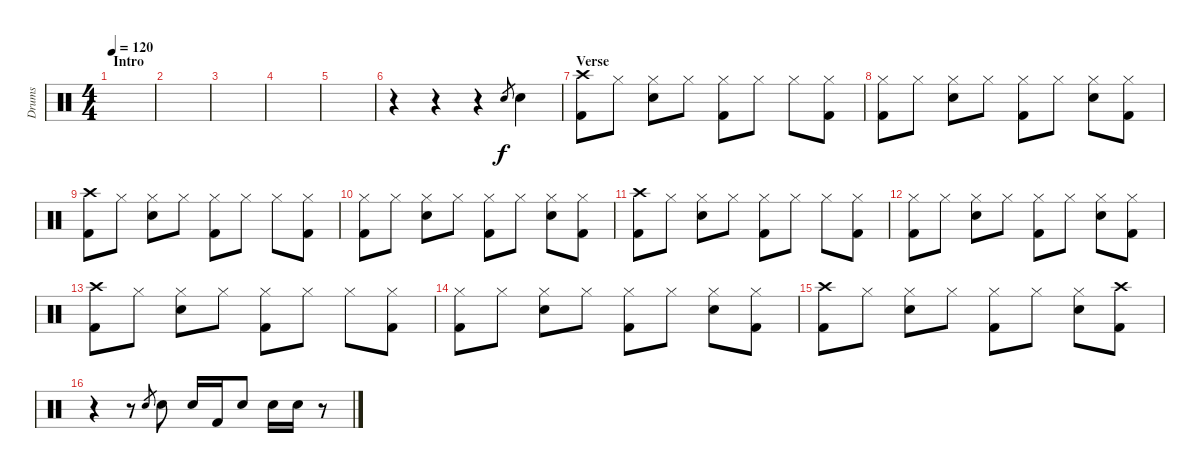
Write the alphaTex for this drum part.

\track ("Drums" "Drums") {instrument percussion}
\staff {score}
\articulation defaults
\ts (4 4)
\section ("" "Intro")
\tempo 120
\clef neutral
\ks c
|
|
|
|
|
r.4 r.4 r.4 "Electric Snare (hit)".8{gr} "Electric Snare (hit)".4 |
\section ("" "Verse")
("Crash high (hit)" "Kick (hit) 2").8 "Hi-Hat (closed)".8 ("Hi-Hat (closed)" "Electric Snare (hit)").8 "Hi-Hat (closed)".8 ("Hi-Hat (closed)" "Kick (hit) 2").8 "Hi-Hat (closed)".8 "Hi-Hat (closed)".8 ("Hi-Hat (closed)" "Kick (hit) 2").8 |
("Hi-Hat (closed)" "Kick (hit) 2").8 "Hi-Hat (closed)".8 ("Hi-Hat (closed)" "Electric Snare (hit)").8 "Hi-Hat (closed)".8 ("Hi-Hat (closed)" "Kick (hit) 2").8 "Hi-Hat (closed)".8 ("Hi-Hat (closed)" "Electric Snare (hit)").8 ("Hi-Hat (closed)" "Kick (hit) 2").8 |
("Crash high (hit)" "Kick (hit) 2").8 "Hi-Hat (closed)".8 ("Hi-Hat (closed)" "Electric Snare (hit)").8 "Hi-Hat (closed)".8 ("Hi-Hat (closed)" "Kick (hit) 2").8 "Hi-Hat (closed)".8 "Hi-Hat (closed)".8 ("Hi-Hat (closed)" "Kick (hit) 2").8 |
("Hi-Hat (closed)" "Kick (hit) 2").8 "Hi-Hat (closed)".8 ("Hi-Hat (closed)" "Electric Snare (hit)").8 "Hi-Hat (closed)".8 ("Hi-Hat (closed)" "Kick (hit) 2").8 "Hi-Hat (closed)".8 ("Hi-Hat (closed)" "Electric Snare (hit)").8 ("Hi-Hat (closed)" "Kick (hit) 2").8 |
("Crash high (hit)" "Kick (hit) 2").8 "Hi-Hat (closed)".8 ("Hi-Hat (closed)" "Electric Snare (hit)").8 "Hi-Hat (closed)".8 ("Hi-Hat (closed)" "Kick (hit) 2").8 "Hi-Hat (closed)".8 "Hi-Hat (closed)".8 ("Hi-Hat (closed)" "Kick (hit) 2").8 |
("Hi-Hat (closed)" "Kick (hit) 2").8 "Hi-Hat (closed)".8 ("Hi-Hat (closed)" "Electric Snare (hit)").8 "Hi-Hat (closed)".8 ("Hi-Hat (closed)" "Kick (hit) 2").8 "Hi-Hat (closed)".8 ("Hi-Hat (closed)" "Electric Snare (hit)").8 ("Hi-Hat (closed)" "Kick (hit) 2").8 |
("Crash high (hit)" "Kick (hit) 2").8 "Hi-Hat (closed)".8 ("Hi-Hat (closed)" "Electric Snare (hit)").8 "Hi-Hat (closed)".8 ("Hi-Hat (closed)" "Kick (hit) 2").8 "Hi-Hat (closed)".8 "Hi-Hat (closed)".8 ("Hi-Hat (closed)" "Kick (hit) 2").8 |
("Hi-Hat (closed)" "Kick (hit) 2").8 "Hi-Hat (closed)".8 ("Hi-Hat (closed)" "Electric Snare (hit)").8 "Hi-Hat (closed)".8 ("Hi-Hat (closed)" "Kick (hit) 2").8 "Hi-Hat (closed)".8 ("Hi-Hat (closed)" "Electric Snare (hit)").8 ("Hi-Hat (closed)" "Kick (hit) 2").8 |
("Crash high (hit)" "Kick (hit) 2").8 "Hi-Hat (closed)".8 ("Hi-Hat (closed)" "Electric Snare (hit)").8 "Hi-Hat (closed)".8 ("Hi-Hat (closed)" "Kick (hit) 2").8 "Hi-Hat (closed)".8 ("Hi-Hat (closed)" "Electric Snare (hit)").8 ("Crash high (hit)" "Kick (hit) 2").8 |
r.4 r.8 "Electric Snare (hit)".8{gr} "Electric Snare (hit)".8 "Electric Snare (hit)".16 "Kick (hit) 2".16 "Electric Snare (hit)".8 "Electric Snare (hit)".16 "Electric Snare (hit)".16 r.8
